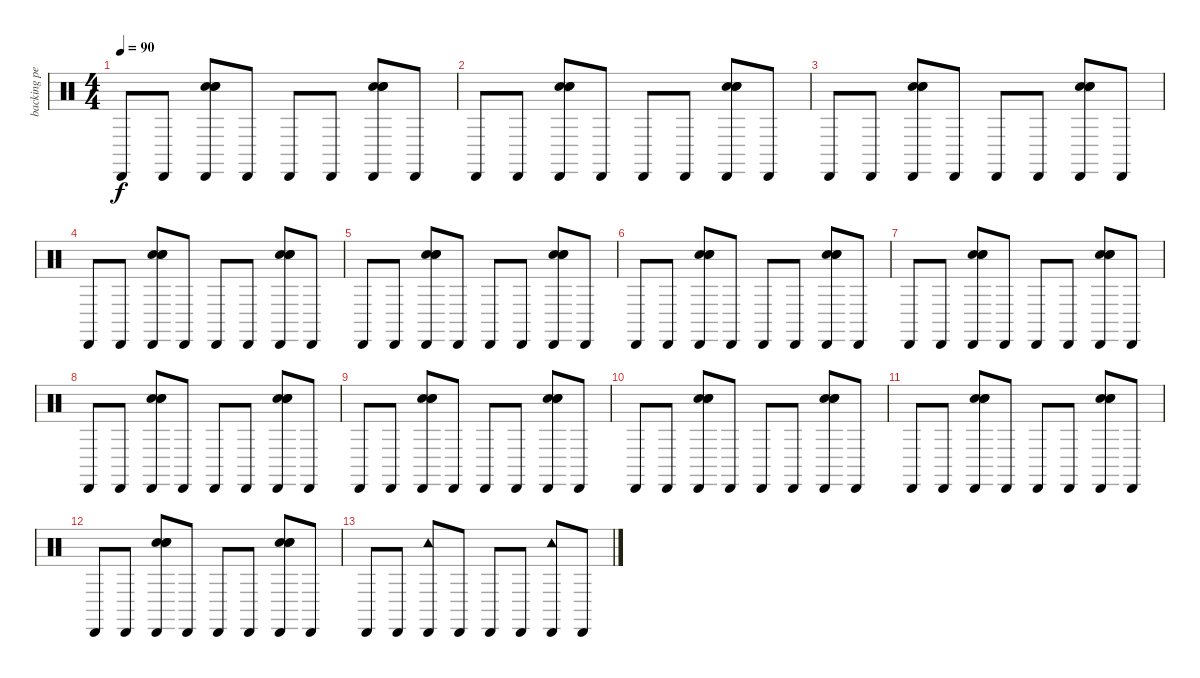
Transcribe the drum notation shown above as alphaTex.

\track ("backing percussion" "backing pe") {instrument percussion}
\staff {score}
\articulation defaults
\ts (4 4)
\tempo 90
\clef neutral
\ks c "Cabasa (hit)".8{dy f} "Cabasa (hit)".8
("Cabasa (hit)" "Hand Clap (hit)" "Hand Clap (hit)" "Hand Clap (hit)").8 "Cabasa (hit)".8 "Cabasa (hit)".8 "Cabasa (hit)".8 ("Cabasa (hit)" "Hand Clap (hit)" "Hand Clap (hit)" "Hand Clap (hit)").8 "Cabasa (hit)".8 |
"Cabasa (hit)".8 "Cabasa (hit)".8 ("Cabasa (hit)" "Hand Clap (hit)" "Hand Clap (hit)" "Hand Clap (hit)").8 "Cabasa (hit)".8 "Cabasa (hit)".8 "Cabasa (hit)".8 ("Cabasa (hit)" "Hand Clap (hit)" "Hand Clap (hit)" "Hand Clap (hit)").8 "Cabasa (hit)".8 |
"Cabasa (hit)".8 "Cabasa (hit)".8 ("Cabasa (hit)" "Hand Clap (hit)" "Hand Clap (hit)" "Hand Clap (hit)").8 "Cabasa (hit)".8 "Cabasa (hit)".8 "Cabasa (hit)".8 ("Cabasa (hit)" "Hand Clap (hit)" "Hand Clap (hit)" "Hand Clap (hit)").8 "Cabasa (hit)".8 |
"Cabasa (hit)".8 "Cabasa (hit)".8 ("Cabasa (hit)" "Hand Clap (hit)" "Hand Clap (hit)" "Hand Clap (hit)").8 "Cabasa (hit)".8 "Cabasa (hit)".8 "Cabasa (hit)".8 ("Cabasa (hit)" "Hand Clap (hit)" "Hand Clap (hit)" "Hand Clap (hit)").8 "Cabasa (hit)".8 |
"Cabasa (hit)".8 "Cabasa (hit)".8 ("Cabasa (hit)" "Hand Clap (hit)" "Hand Clap (hit)" "Hand Clap (hit)").8 "Cabasa (hit)".8 "Cabasa (hit)".8 "Cabasa (hit)".8 ("Cabasa (hit)" "Hand Clap (hit)" "Hand Clap (hit)" "Hand Clap (hit)").8 "Cabasa (hit)".8 |
"Cabasa (hit)".8 "Cabasa (hit)".8 ("Cabasa (hit)" "Hand Clap (hit)" "Hand Clap (hit)" "Hand Clap (hit)").8 "Cabasa (hit)".8 "Cabasa (hit)".8 "Cabasa (hit)".8 ("Cabasa (hit)" "Hand Clap (hit)" "Hand Clap (hit)" "Hand Clap (hit)").8 "Cabasa (hit)".8 |
"Cabasa (hit)".8 "Cabasa (hit)".8 ("Cabasa (hit)" "Hand Clap (hit)" "Hand Clap (hit)" "Hand Clap (hit)").8 "Cabasa (hit)".8 "Cabasa (hit)".8 "Cabasa (hit)".8 ("Cabasa (hit)" "Hand Clap (hit)" "Hand Clap (hit)" "Hand Clap (hit)").8 "Cabasa (hit)".8 |
"Cabasa (hit)".8 "Cabasa (hit)".8 ("Cabasa (hit)" "Hand Clap (hit)" "Hand Clap (hit)" "Hand Clap (hit)").8 "Cabasa (hit)".8 "Cabasa (hit)".8 "Cabasa (hit)".8 ("Cabasa (hit)" "Hand Clap (hit)" "Hand Clap (hit)" "Hand Clap (hit)").8 "Cabasa (hit)".8 |
"Cabasa (hit)".8 "Cabasa (hit)".8 ("Cabasa (hit)" "Hand Clap (hit)" "Hand Clap (hit)" "Hand Clap (hit)").8 "Cabasa (hit)".8 "Cabasa (hit)".8 "Cabasa (hit)".8 ("Cabasa (hit)" "Hand Clap (hit)" "Hand Clap (hit)" "Hand Clap (hit)").8 "Cabasa (hit)".8 |
"Cabasa (hit)".8 "Cabasa (hit)".8 ("Cabasa (hit)" "Hand Clap (hit)" "Hand Clap (hit)" "Hand Clap (hit)").8 "Cabasa (hit)".8 "Cabasa (hit)".8 "Cabasa (hit)".8 ("Cabasa (hit)" "Hand Clap (hit)" "Hand Clap (hit)" "Hand Clap (hit)").8 "Cabasa (hit)".8 |
"Cabasa (hit)".8 "Cabasa (hit)".8 ("Cabasa (hit)" "Hand Clap (hit)" "Hand Clap (hit)" "Hand Clap (hit)").8 "Cabasa (hit)".8 "Cabasa (hit)".8 "Cabasa (hit)".8 ("Cabasa (hit)" "Hand Clap (hit)" "Hand Clap (hit)" "Hand Clap (hit)").8 "Cabasa (hit)".8 |
"Cabasa (hit)".8 "Cabasa (hit)".8 ("Cabasa (hit)" "Hand Clap (hit)" "Hand Clap (hit)" "Hand Clap (hit)").8 "Cabasa (hit)".8 "Cabasa (hit)".8 "Cabasa (hit)".8 ("Cabasa (hit)" "Hand Clap (hit)" "Hand Clap (hit)" "Hand Clap (hit)").8 "Cabasa (hit)".8 |
"Cabasa (hit)".8 "Cabasa (hit)".8 ("Cabasa (hit)" "Tambourine (hit)").8 "Cabasa (hit)".8 "Cabasa (hit)".8 "Cabasa (hit)".8 ("Cabasa (hit)" "Tambourine (hit)").8 "Cabasa (hit)".8
